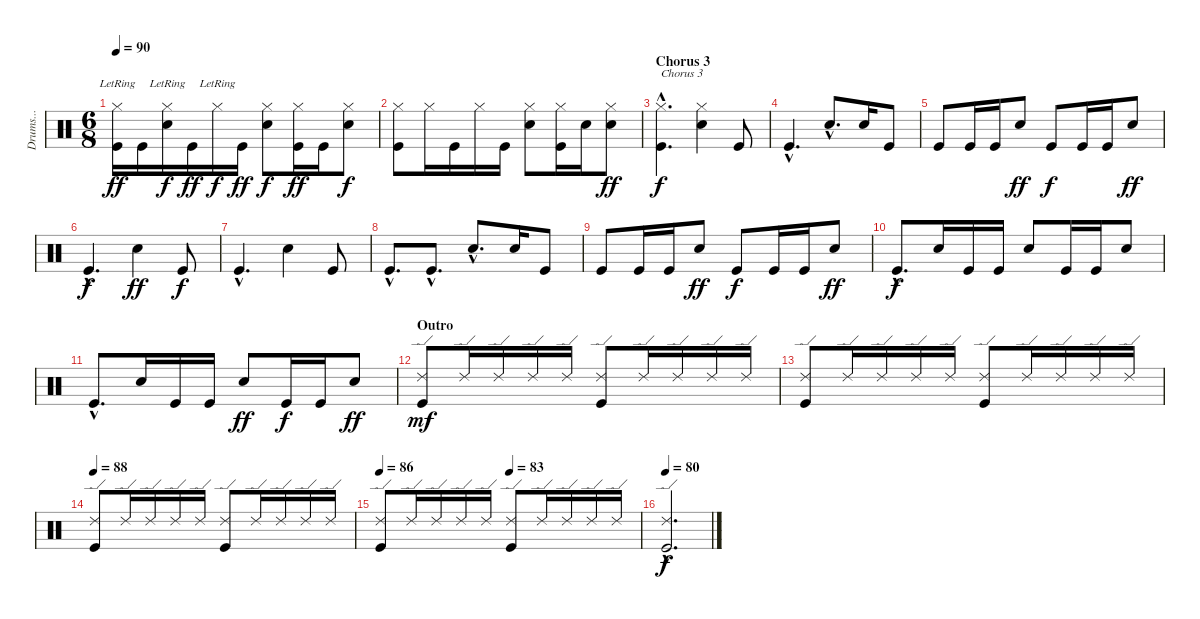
\track ("Drums..." "Drums...") {instrument percussion}
\staff {score}
\articulation defaults
\ts (6 8)
\tempo 90
\clef neutral
\ks c
("Hi-Hat (closed)"{lr} "Kick (hit)").16{dy ff} "Kick (hit)".16 ("Hi-Hat (closed)"{lr} "Electric Snare (hit)").16{dy f} "Kick (hit)".16{dy ff} "Hi-Hat (closed)"{lr}.16{dy f} "Kick (hit)".16{dy ff} ("Hi-Hat (closed)" "Electric Snare (hit)").8{dy f} ("Hi-Hat (closed)" "Kick (hit)").16{dy ff} "Kick (hit)".16 ("Hi-Hat (closed)" "Electric Snare (hit)").8{dy f} |
("Hi-Hat (closed)" "Kick (hit)").8 "Hi-Hat (closed)".16 "Kick (hit)".16 "Hi-Hat (closed)".16 "Kick (hit)".16 ("Hi-Hat (closed)" "Electric Snare (hit)").8 ("Hi-Hat (closed)" "Kick (hit)").16 "Electric Snare (hit)".16 ("Hi-Hat (closed)" "Electric Snare (hit)").8{dy ff} |
\section ("" "Chorus 3")
("Hi-Hat (closed)"{hac} "Kick (hit)"{hac}).4{d txt "Chorus 3" dy f} ("Hi-Hat (closed)" "Electric Snare (hit)").4 "Kick (hit)".8 |
"Kick (hit)"{hac}.4{d} "Electric Snare (hit)"{hac}.8{d} "Electric Snare (hit)".16 "Kick (hit)".8 |
"Kick (hit)".8 "Kick (hit)".16 "Kick (hit)".16 "Electric Snare (hit)".8{dy ff} "Kick (hit)".8{dy f} "Kick (hit)".16 "Kick (hit)".16 "Electric Snare (hit)".8{dy ff} |
"Kick (hit)"{hac}.4{d dy f} "Electric Snare (hit)".4{dy ff} "Kick (hit)".8{dy f} |
"Kick (hit)"{hac}.4{d} "Electric Snare (hit)".4 "Kick (hit)".8 |
"Kick (hit)"{hac}.8{d} "Kick (hit)"{hac}.8{d} "Electric Snare (hit)"{hac}.8{d} "Electric Snare (hit)".16 "Kick (hit)".8 |
"Kick (hit)".8 "Kick (hit)".16 "Kick (hit)".16 "Electric Snare (hit)".8{dy ff} "Kick (hit)".8{dy f} "Kick (hit)".16 "Kick (hit)".16 "Electric Snare (hit)".8{dy ff} |
"Kick (hit)"{hac}.8{d dy f} "Electric Snare (hit)".16 "Kick (hit)".16 "Kick (hit)".16 "Electric Snare (hit)".8 "Kick (hit)".16 "Kick (hit)".16 "Electric Snare (hit)".8 |
"Kick (hit)"{hac}.8{d} "Electric Snare (hit)".16 "Kick (hit)".16 "Kick (hit)".16 "Electric Snare (hit)".8{dy ff} "Kick (hit)".16{dy f} "Kick (hit)".16 "Electric Snare (hit)".8{dy ff} |
\section ("" "Outro")
("Ride (edge) 2" "Kick (hit)").8{dy mf} "Ride (edge) 2".16 "Ride (edge) 2".16 "Ride (edge) 2".16 "Ride (edge) 2".16 ("Ride (edge) 2" "Kick (hit)").8 "Ride (edge) 2".16 "Ride (edge) 2".16 "Ride (edge) 2".16 "Ride (edge) 2".16 |
("Ride (edge) 2" "Kick (hit)").8 "Ride (edge) 2".16 "Ride (edge) 2".16 "Ride (edge) 2".16 "Ride (edge) 2".16 ("Ride (edge) 2" "Kick (hit)").8 "Ride (edge) 2".16 "Ride (edge) 2".16 "Ride (edge) 2".16 "Ride (edge) 2".16 |
\tempo 88
("Ride (edge) 2" "Kick (hit)").8 "Ride (edge) 2".16 "Ride (edge) 2".16 "Ride (edge) 2".16 "Ride (edge) 2".16 ("Ride (edge) 2" "Kick (hit)").8 "Ride (edge) 2".16 "Ride (edge) 2".16 "Ride (edge) 2".16 "Ride (edge) 2".16 |
\tempo 86
\tempo (83 0.5)
("Ride (edge) 2" "Kick (hit)").8 "Ride (edge) 2".16 "Ride (edge) 2".16 "Ride (edge) 2".16 "Ride (edge) 2".16 ("Ride (edge) 2" "Kick (hit)").8 "Ride (edge) 2".16 "Ride (edge) 2".16 "Ride (edge) 2".16 "Ride (edge) 2".16 |
\tempo 80
("Ride (edge) 2"{hac} "Kick (hit)"{hac}).2{d dy f}
